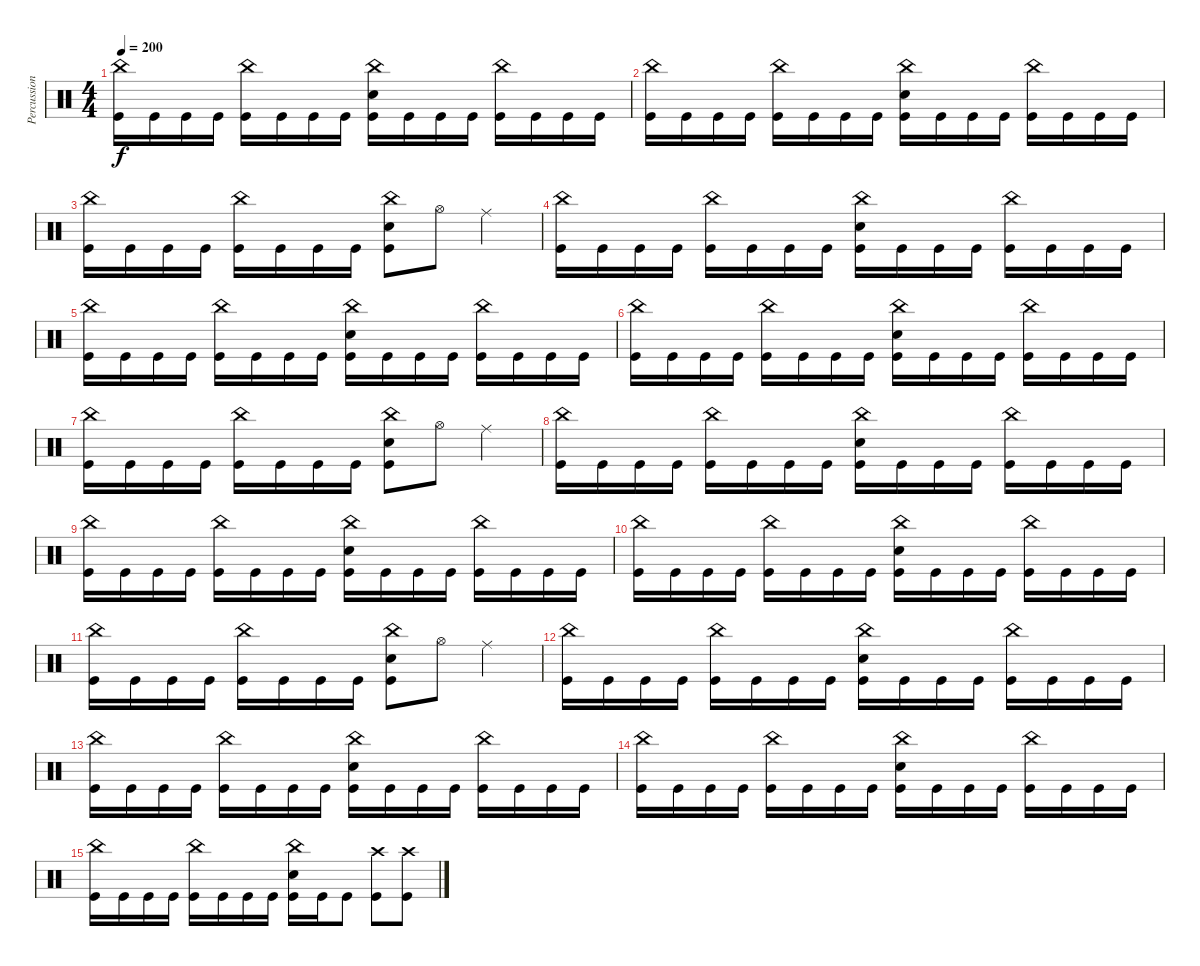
\track ("Percussion" "Percussion") {instrument percussion}
\staff {score}
\articulation defaults
\ts (4 4)
\tempo 200
\clef neutral
\ks c
("China (hit)" "Kick (hit)").16{dy f} "Kick (hit)".16 "Kick (hit)".16 "Kick (hit)".16 ("China (hit)" "Kick (hit)").16 "Kick (hit)".16 "Kick (hit)".16 "Kick (hit)".16 ("China (hit)" "Electric Snare (hit)" "Kick (hit)").16 "Kick (hit)".16 "Kick (hit)".16 "Kick (hit)".16 ("China (hit)" "Kick (hit)").16 "Kick (hit)".16 "Kick (hit)".16 "Kick (hit)".16 |
("China (hit)" "Kick (hit)").16 "Kick (hit)".16 "Kick (hit)".16 "Kick (hit)".16 ("China (hit)" "Kick (hit)").16 "Kick (hit)".16 "Kick (hit)".16 "Kick (hit)".16 ("China (hit)" "Electric Snare (hit)" "Kick (hit)").16 "Kick (hit)".16 "Kick (hit)".16 "Kick (hit)".16 ("China (hit)" "Kick (hit)").16 "Kick (hit)".16 "Kick (hit)".16 "Kick (hit)".16 |
("China (hit)" "Kick (hit)").16 "Kick (hit)".16 "Kick (hit)".16 "Kick (hit)".16 ("China (hit)" "Kick (hit)").16 "Kick (hit)".16 "Kick (hit)".16 "Kick (hit)".16 ("China (hit)" "Electric Snare (hit)" "Kick (hit)").8 "Hi-Hat (open)".8 "Ride (middle)".4 |
("China (hit)" "Kick (hit)").16 "Kick (hit)".16 "Kick (hit)".16 "Kick (hit)".16 ("China (hit)" "Kick (hit)").16 "Kick (hit)".16 "Kick (hit)".16 "Kick (hit)".16 ("China (hit)" "Electric Snare (hit)" "Kick (hit)").16 "Kick (hit)".16 "Kick (hit)".16 "Kick (hit)".16 ("China (hit)" "Kick (hit)").16 "Kick (hit)".16 "Kick (hit)".16 "Kick (hit)".16 |
("China (hit)" "Kick (hit)").16 "Kick (hit)".16 "Kick (hit)".16 "Kick (hit)".16 ("China (hit)" "Kick (hit)").16 "Kick (hit)".16 "Kick (hit)".16 "Kick (hit)".16 ("China (hit)" "Electric Snare (hit)" "Kick (hit)").16 "Kick (hit)".16 "Kick (hit)".16 "Kick (hit)".16 ("China (hit)" "Kick (hit)").16 "Kick (hit)".16 "Kick (hit)".16 "Kick (hit)".16 |
("China (hit)" "Kick (hit)").16 "Kick (hit)".16 "Kick (hit)".16 "Kick (hit)".16 ("China (hit)" "Kick (hit)").16 "Kick (hit)".16 "Kick (hit)".16 "Kick (hit)".16 ("China (hit)" "Electric Snare (hit)" "Kick (hit)").16 "Kick (hit)".16 "Kick (hit)".16 "Kick (hit)".16 ("China (hit)" "Kick (hit)").16 "Kick (hit)".16 "Kick (hit)".16 "Kick (hit)".16 |
("China (hit)" "Kick (hit)").16 "Kick (hit)".16 "Kick (hit)".16 "Kick (hit)".16 ("China (hit)" "Kick (hit)").16 "Kick (hit)".16 "Kick (hit)".16 "Kick (hit)".16 ("China (hit)" "Electric Snare (hit)" "Kick (hit)").8 "Hi-Hat (open)".8 "Ride (middle)".4 |
("China (hit)" "Kick (hit)").16 "Kick (hit)".16 "Kick (hit)".16 "Kick (hit)".16 ("China (hit)" "Kick (hit)").16 "Kick (hit)".16 "Kick (hit)".16 "Kick (hit)".16 ("China (hit)" "Electric Snare (hit)" "Kick (hit)").16 "Kick (hit)".16 "Kick (hit)".16 "Kick (hit)".16 ("China (hit)" "Kick (hit)").16 "Kick (hit)".16 "Kick (hit)".16 "Kick (hit)".16 |
("China (hit)" "Kick (hit)").16 "Kick (hit)".16 "Kick (hit)".16 "Kick (hit)".16 ("China (hit)" "Kick (hit)").16 "Kick (hit)".16 "Kick (hit)".16 "Kick (hit)".16 ("China (hit)" "Electric Snare (hit)" "Kick (hit)").16 "Kick (hit)".16 "Kick (hit)".16 "Kick (hit)".16 ("China (hit)" "Kick (hit)").16 "Kick (hit)".16 "Kick (hit)".16 "Kick (hit)".16 |
("China (hit)" "Kick (hit)").16 "Kick (hit)".16 "Kick (hit)".16 "Kick (hit)".16 ("China (hit)" "Kick (hit)").16 "Kick (hit)".16 "Kick (hit)".16 "Kick (hit)".16 ("China (hit)" "Electric Snare (hit)" "Kick (hit)").16 "Kick (hit)".16 "Kick (hit)".16 "Kick (hit)".16 ("China (hit)" "Kick (hit)").16 "Kick (hit)".16 "Kick (hit)".16 "Kick (hit)".16 |
("China (hit)" "Kick (hit)").16 "Kick (hit)".16 "Kick (hit)".16 "Kick (hit)".16 ("China (hit)" "Kick (hit)").16 "Kick (hit)".16 "Kick (hit)".16 "Kick (hit)".16 ("China (hit)" "Electric Snare (hit)" "Kick (hit)").8 "Hi-Hat (open)".8 "Ride (middle)".4 |
("China (hit)" "Kick (hit)").16 "Kick (hit)".16 "Kick (hit)".16 "Kick (hit)".16 ("China (hit)" "Kick (hit)").16 "Kick (hit)".16 "Kick (hit)".16 "Kick (hit)".16 ("China (hit)" "Electric Snare (hit)" "Kick (hit)").16 "Kick (hit)".16 "Kick (hit)".16 "Kick (hit)".16 ("China (hit)" "Kick (hit)").16 "Kick (hit)".16 "Kick (hit)".16 "Kick (hit)".16 |
("China (hit)" "Kick (hit)").16 "Kick (hit)".16 "Kick (hit)".16 "Kick (hit)".16 ("China (hit)" "Kick (hit)").16 "Kick (hit)".16 "Kick (hit)".16 "Kick (hit)".16 ("China (hit)" "Electric Snare (hit)" "Kick (hit)").16 "Kick (hit)".16 "Kick (hit)".16 "Kick (hit)".16 ("China (hit)" "Kick (hit)").16 "Kick (hit)".16 "Kick (hit)".16 "Kick (hit)".16 |
("China (hit)" "Kick (hit)").16 "Kick (hit)".16 "Kick (hit)".16 "Kick (hit)".16 ("China (hit)" "Kick (hit)").16 "Kick (hit)".16 "Kick (hit)".16 "Kick (hit)".16 ("China (hit)" "Electric Snare (hit)" "Kick (hit)").16 "Kick (hit)".16 "Kick (hit)".16 "Kick (hit)".16 ("China (hit)" "Kick (hit)").16 "Kick (hit)".16 "Kick (hit)".16 "Kick (hit)".16 |
("China (hit)" "Kick (hit)").16 "Kick (hit)".16 "Kick (hit)".16 "Kick (hit)".16 ("China (hit)" "Kick (hit)").16 "Kick (hit)".16 "Kick (hit)".16 "Kick (hit)".16 ("China (hit)" "Electric Snare (hit)" "Kick (hit)").16 "Kick (hit)".16 "Kick (hit)".8 ("Crash high (hit)" "Kick (hit)").8 ("Crash high (hit)" "Kick (hit)").8
